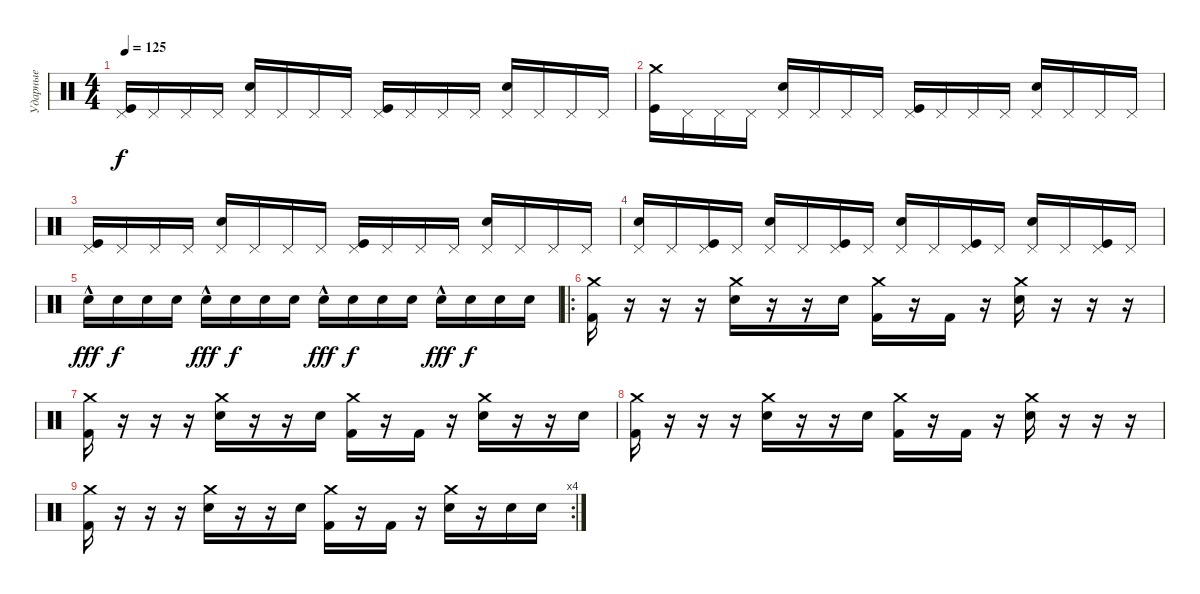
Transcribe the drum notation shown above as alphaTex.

\track ("Ударные" "Ударные") {instrument percussion}
\staff {score}
\articulation defaults
\ts (4 4)
\tempo 125
\clef neutral
\ks c
("Pedal Hi-Hat (hit)" "Kick (hit)").16{dy f} "Pedal Hi-Hat (hit)".16 "Pedal Hi-Hat (hit)".16 "Pedal Hi-Hat (hit)".16 ("Pedal Hi-Hat (hit)" "Snare (hit) 2").16 "Pedal Hi-Hat (hit)".16 "Pedal Hi-Hat (hit)".16 "Pedal Hi-Hat (hit)".16 ("Pedal Hi-Hat (hit)" "Kick (hit)").16 "Pedal Hi-Hat (hit)".16 "Pedal Hi-Hat (hit)".16 "Pedal Hi-Hat (hit)".16 ("Pedal Hi-Hat (hit)" "Snare (hit) 2").16 "Pedal Hi-Hat (hit)".16 "Pedal Hi-Hat (hit)".16 "Pedal Hi-Hat (hit)".16 |
("Crash medium (hit)" "Kick (hit)").16 "Pedal Hi-Hat (hit)".16 "Pedal Hi-Hat (hit)".16 "Pedal Hi-Hat (hit)".16 ("Pedal Hi-Hat (hit)" "Snare (hit) 2").16 "Pedal Hi-Hat (hit)".16 "Pedal Hi-Hat (hit)".16 "Pedal Hi-Hat (hit)".16 ("Pedal Hi-Hat (hit)" "Kick (hit)").16 "Pedal Hi-Hat (hit)".16 "Pedal Hi-Hat (hit)".16 "Pedal Hi-Hat (hit)".16 ("Pedal Hi-Hat (hit)" "Snare (hit) 2").16 "Pedal Hi-Hat (hit)".16 "Pedal Hi-Hat (hit)".16 "Pedal Hi-Hat (hit)".16 |
("Pedal Hi-Hat (hit)" "Kick (hit)").16 "Pedal Hi-Hat (hit)".16 "Pedal Hi-Hat (hit)".16 "Pedal Hi-Hat (hit)".16 ("Pedal Hi-Hat (hit)" "Snare (hit) 2").16 "Pedal Hi-Hat (hit)".16 "Pedal Hi-Hat (hit)".16 "Pedal Hi-Hat (hit)".16 ("Pedal Hi-Hat (hit)" "Kick (hit)").16 "Pedal Hi-Hat (hit)".16 "Pedal Hi-Hat (hit)".16 "Pedal Hi-Hat (hit)".16 ("Pedal Hi-Hat (hit)" "Snare (hit) 2").16 "Pedal Hi-Hat (hit)".16 "Pedal Hi-Hat (hit)".16 "Pedal Hi-Hat (hit)".16 |
("Pedal Hi-Hat (hit)" "Snare (hit) 2").16 "Pedal Hi-Hat (hit)".16 ("Pedal Hi-Hat (hit)" "Kick (hit)").16 "Pedal Hi-Hat (hit)".16 ("Pedal Hi-Hat (hit)" "Snare (hit) 2").16 "Pedal Hi-Hat (hit)".16 ("Pedal Hi-Hat (hit)" "Kick (hit)").16 "Pedal Hi-Hat (hit)".16 ("Pedal Hi-Hat (hit)" "Snare (hit) 2").16 "Pedal Hi-Hat (hit)".16 ("Pedal Hi-Hat (hit)" "Kick (hit)").16 "Pedal Hi-Hat (hit)".16 ("Pedal Hi-Hat (hit)" "Snare (hit) 2").16 "Pedal Hi-Hat (hit)".16 ("Pedal Hi-Hat (hit)" "Kick (hit)").16 "Pedal Hi-Hat (hit)".16 |
"Snare (hit) 2"{hac}.16{dy fff} "Snare (hit) 2".16{dy f} "Snare (hit) 2".16 "Snare (hit) 2".16 "Snare (hit) 2"{hac}.16{dy fff} "Snare (hit) 2".16{dy f} "Snare (hit) 2".16 "Snare (hit) 2".16 "Snare (hit) 2"{hac}.16{dy fff} "Snare (hit) 2".16{dy f} "Snare (hit) 2".16 "Snare (hit) 2".16 "Snare (hit) 2"{hac}.16{dy fff} "Snare (hit) 2".16{dy f} "Snare (hit) 2".16 "Snare (hit) 2".16 |
\ro
("Crash medium (hit)" "Kick (hit) 2").16 r.16 r.16 r.16 ("Crash medium (hit)" "Snare (hit) 2").16 r.16 r.16 "Snare (hit) 2".16 ("Crash medium (hit)" "Kick (hit) 2").16 r.16 "Kick (hit) 2".16 r.16 ("Crash medium (hit)" "Snare (hit) 2").16 r.16 r.16 r.16 |
("Crash medium (hit)" "Kick (hit) 2").16 r.16 r.16 r.16 ("Crash medium (hit)" "Snare (hit) 2").16 r.16 r.16 "Snare (hit) 2".16 ("Crash medium (hit)" "Kick (hit) 2").16 r.16 "Kick (hit) 2".16 r.16 ("Crash medium (hit)" "Snare (hit) 2").16 r.16 r.16 "Snare (hit) 2".16 |
("Crash medium (hit)" "Kick (hit) 2").16 r.16 r.16 r.16 ("Crash medium (hit)" "Snare (hit) 2").16 r.16 r.16 "Snare (hit) 2".16 ("Crash medium (hit)" "Kick (hit) 2").16 r.16 "Kick (hit) 2".16 r.16 ("Crash medium (hit)" "Snare (hit) 2").16 r.16 r.16 r.16 |
\rc 4
("Crash medium (hit)" "Kick (hit) 2").16 r.16 r.16 r.16 ("Crash medium (hit)" "Snare (hit) 2").16 r.16 r.16 "Snare (hit) 2".16 ("Crash medium (hit)" "Kick (hit) 2").16 r.16 "Kick (hit) 2".16 r.16 ("Crash medium (hit)" "Snare (hit) 2").16 r.16 "Snare (hit) 2".16 "Snare (hit) 2".16
